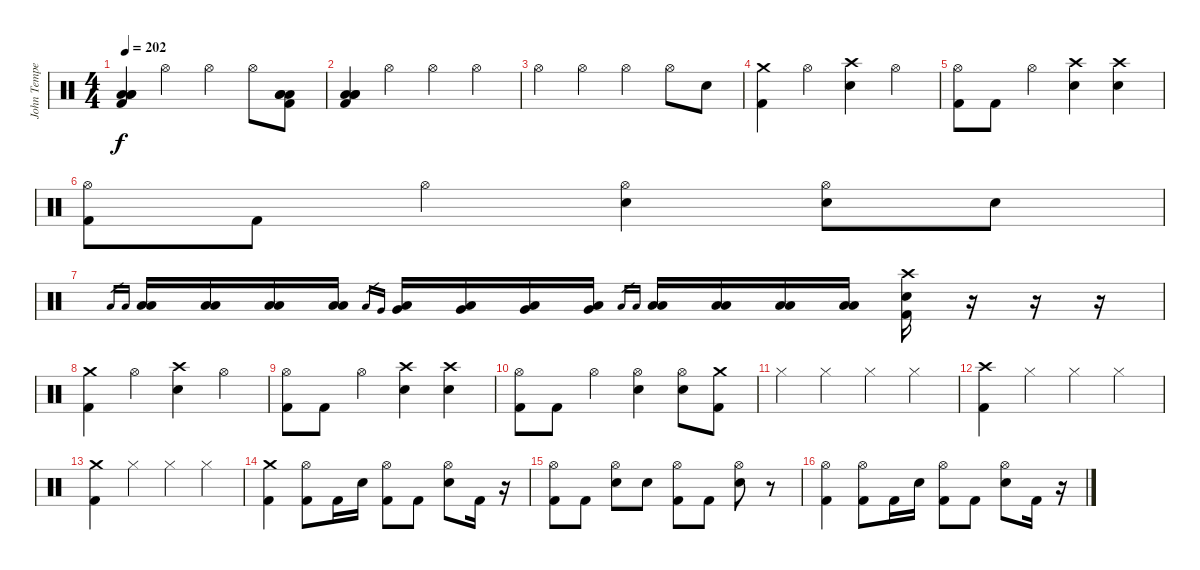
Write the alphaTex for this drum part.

\track ("John Tempesta" "John Tempe") {instrument percussion}
\staff {score}
\articulation defaults
\ts (4 4)
\tempo 202
\clef neutral
\ks c
("Kick (hit) 2" "Low Floor Tom (hit)" "Low Tom (hit)" "Low Floor Tom (hit)").4{dy f} "Hi-Hat (open)".4 "Hi-Hat (open)".4 "Hi-Hat (open)".8 ("Kick (hit) 2" "Low Floor Tom (hit)" "Low Tom (hit)" "Low Floor Tom (hit)").8 |
("Kick (hit) 2" "Low Floor Tom (hit)" "Low Tom (hit)" "Low Floor Tom (hit)").4 "Hi-Hat (open)".4 "Hi-Hat (open)".4 "Hi-Hat (open)".4 |
"Hi-Hat (open)".4 "Hi-Hat (open)".4 "Hi-Hat (open)".4 "Hi-Hat (open)".8 "Snare (hit) 2".8 |
("Kick (hit) 2" "Crash medium (hit)").4 "Hi-Hat (open)".4 ("Snare (hit) 2" "Crash high (hit)").4 "Hi-Hat (open)".4 |
("Kick (hit) 2" "Hi-Hat (open)").8 "Kick (hit) 2".8 "Hi-Hat (open)".4 ("Snare (hit) 2" "Crash high (hit)").4 ("Snare (hit) 2" "Crash high (hit)").4 |
("Kick (hit) 2" "Hi-Hat (open)").8 "Kick (hit) 2".8 "Hi-Hat (open)".4 ("Snare (hit) 2" "Hi-Hat (open)").4 ("Snare (hit) 2" "Hi-Hat (open)").8 "Snare (hit) 2".8 |
"Low Floor Tom (hit)".16{gr} "Low Tom (hit)".16{gr} ("Low Floor Tom (hit)" "Low Tom (hit)").16 ("Low Floor Tom (hit)" "Low Tom (hit)").16 ("Low Floor Tom (hit)" "Low Tom (hit)").16 ("Low Floor Tom (hit)" "Low Tom (hit)").16 "Low Floor Tom (hit)".16{gr} "Very Low Tom (hit)".16{gr} ("Low Floor Tom (hit)" "Very Low Tom (hit)").16 ("Low Floor Tom (hit)" "Very Low Tom (hit)").16 ("Low Floor Tom (hit)" "Very Low Tom (hit)").16 ("Low Floor Tom (hit)" "Very Low Tom (hit)").16 "Low Floor Tom (hit)".16{gr} "Low Floor Tom (hit)".16{gr} ("Low Floor Tom (hit)" "Low Floor Tom (hit)").16 ("Low Floor Tom (hit)" "Low Floor Tom (hit)").16 ("Low Floor Tom (hit)" "Low Floor Tom (hit)").16 ("Low Floor Tom (hit)" "Low Floor Tom (hit)").16 ("Kick (hit) 2" "Crash high (hit)" "Snare (hit) 2").16 r.16 r.16 r.16 |
("Kick (hit) 2" "Crash medium (hit)").4 "Hi-Hat (open)".4 ("Snare (hit) 2" "Crash high (hit)").4 "Hi-Hat (open)".4 |
("Kick (hit) 2" "Hi-Hat (open)").8 "Kick (hit) 2".8 "Hi-Hat (open)".4 ("Snare (hit) 2" "Crash high (hit)").4 ("Snare (hit) 2" "Crash high (hit)").4 |
("Kick (hit) 2" "Hi-Hat (open)").8 "Kick (hit) 2".8 "Hi-Hat (open)".4 ("Snare (hit) 2" "Hi-Hat (open)").4 ("Snare (hit) 2" "Hi-Hat (open)").8 ("Kick (hit) 2" "Crash medium (hit)").8 |
"Hi-Hat (closed)".4 "Hi-Hat (closed)".4 "Hi-Hat (closed)".4 "Hi-Hat (closed)".4 |
("Kick (hit) 2" "Crash high (hit)").4 "Hi-Hat (closed)".4 "Hi-Hat (closed)".4 "Hi-Hat (closed)".4 |
("Kick (hit) 2" "Crash medium (hit)").4 "Hi-Hat (closed)".4 "Hi-Hat (closed)".4 "Hi-Hat (closed)".4 |
("Kick (hit) 2" "Crash medium (hit)").4 ("Kick (hit) 2" "Hi-Hat (open)").8 "Kick (hit) 2".16 "Snare (hit) 2".16 ("Hi-Hat (open)" "Kick (hit) 2").8 "Kick (hit) 2".8 ("Snare (hit) 2" "Hi-Hat (open)").8 "Kick (hit) 2".16 r.16 |
("Kick (hit) 2" "Hi-Hat (open)").8 "Kick (hit) 2".8 ("Snare (hit) 2" "Hi-Hat (open)").8 "Snare (hit) 2".8 ("Kick (hit) 2" "Hi-Hat (open)").8 "Kick (hit) 2".8 ("Snare (hit) 2" "Hi-Hat (open)").8 r.8 |
("Kick (hit) 2" "Hi-Hat (open)").4 ("Kick (hit) 2" "Hi-Hat (open)").8 "Kick (hit) 2".16 "Snare (hit) 2".16 ("Hi-Hat (open)" "Kick (hit) 2").8 "Kick (hit) 2".8 ("Snare (hit) 2" "Hi-Hat (open)").8 "Kick (hit) 2".16 r.16
